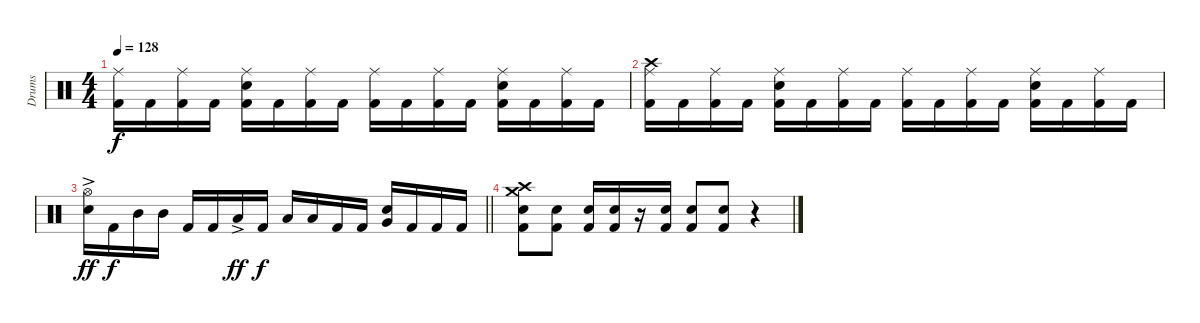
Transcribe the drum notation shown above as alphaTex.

\track ("Drums" "Drums") {instrument percussion}
\staff {score}
\articulation defaults
\ts (4 4)
\tempo 128
\clef neutral
\ks c
("Ride (middle)" "Kick (hit) 2").16{dy f} "Kick (hit) 2".16 ("Ride (middle)" "Kick (hit) 2").16 "Kick (hit) 2".16 ("Ride (middle)" "Snare (hit) 2" "Kick (hit) 2").16 "Kick (hit) 2".16 ("Ride (middle)" "Kick (hit) 2").16 "Kick (hit) 2".16 ("Ride (middle)" "Kick (hit) 2").16 "Kick (hit) 2".16 ("Ride (middle)" "Kick (hit) 2").16 "Kick (hit) 2".16 ("Ride (middle)" "Snare (hit) 2" "Kick (hit) 2").16 "Kick (hit) 2".16 ("Ride (middle)" "Kick (hit) 2").16 "Kick (hit) 2".16 |
("Crash high (hit)" "Ride (middle)" "Kick (hit) 2").16 "Kick (hit) 2".16 ("Ride (middle)" "Kick (hit) 2").16 "Kick (hit) 2".16 ("Ride (middle)" "Snare (hit) 2" "Kick (hit) 2").16 "Kick (hit) 2".16 ("Ride (middle)" "Kick (hit) 2").16 "Kick (hit) 2".16 ("Ride (middle)" "Kick (hit) 2").16 "Kick (hit) 2".16 ("Ride (middle)" "Kick (hit) 2").16 "Kick (hit) 2".16 ("Ride (middle)" "Snare (hit) 2" "Kick (hit) 2").16 "Kick (hit) 2".16 ("Ride (middle)" "Kick (hit) 2").16 "Kick (hit) 2".16 |
\barLineRight lightlight
("Hi-Hat (open)" "Snare (hit) 2"{ac}).16{dy ff} "Kick (hit) 2".16{dy f} "Mid Tom (hit)".16 "Mid Tom (hit)".16 "Kick (hit) 2".16 "Kick (hit) 2".16 "Low Tom (hit)"{ac}.16{dy ff} "Kick (hit) 2".16{dy f} "Low Tom (hit)".16 "Low Tom (hit)".16 "Kick (hit) 2".16 "Kick (hit) 2".16 ("Very Low Tom (hit)" "Snare (hit) 2").16 "Kick (hit) 2".16 "Kick (hit) 2".16 "Kick (hit) 2".16 |
("Crash high (hit)" "Crash medium (hit)" "Snare (hit) 2" "Kick (hit) 2").8 ("Snare (hit) 2" "Kick (hit) 2").8 ("Snare (hit) 2" "Kick (hit) 2").16 ("Snare (hit) 2" "Kick (hit) 2").16 r.16 ("Snare (hit) 2" "Kick (hit) 2").16 ("Snare (hit) 2" "Kick (hit) 2").8 ("Snare (hit) 2" "Kick (hit) 2").8 r.4
